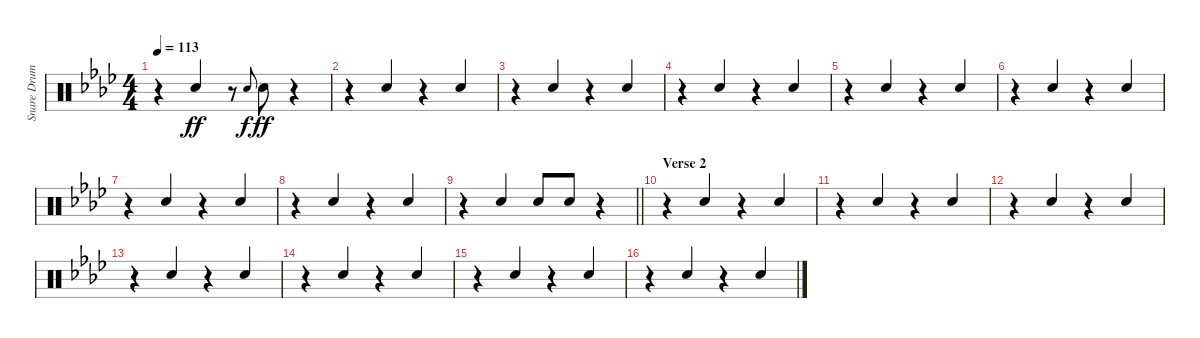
\track ("Snare Drum" "Snare Drum") {instrument percussion}
\staff {score}
\articulation defaults
\ts (4 4)
\tempo 113
\clef neutral
\ks fminor
r.4{dy ff} "Electric Snare (hit)".4{beam Up} r.8 "Electric Snare (hit)".8{gr onbeat dy f} "Electric Snare (hit)".8{dy ff} r.4 |
r.4 "Electric Snare (hit)".4{beam Up} r.4 "Electric Snare (hit)".4{beam Up} |
r.4 "Electric Snare (hit)".4{beam Up} r.4 "Electric Snare (hit)".4{beam Up} |
r.4 "Electric Snare (hit)".4{beam Up} r.4 "Electric Snare (hit)".4{beam Up} |
r.4 "Electric Snare (hit)".4{beam Up} r.4 "Electric Snare (hit)".4{beam Up} |
r.4 "Electric Snare (hit)".4{beam Up} r.4 "Electric Snare (hit)".4{beam Up} |
r.4 "Electric Snare (hit)".4{beam Up} r.4 "Electric Snare (hit)".4{beam Up} |
r.4 "Electric Snare (hit)".4{beam Up} r.4 "Electric Snare (hit)".4{beam Up} |
\barLineRight lightlight
r.4 "Electric Snare (hit)".4{beam Up} "Electric Snare (hit)".8{beam Up} "Electric Snare (hit)".8{beam Up} r.4 |
\section ("" "Verse 2")
r.4 "Electric Snare (hit)".4{beam Up} r.4 "Electric Snare (hit)".4{beam Up} |
r.4 "Electric Snare (hit)".4{beam Up} r.4 "Electric Snare (hit)".4{beam Up} |
r.4 "Electric Snare (hit)".4{beam Up} r.4 "Electric Snare (hit)".4{beam Up} |
r.4 "Electric Snare (hit)".4{beam Up} r.4 "Electric Snare (hit)".4{beam Up} |
r.4 "Electric Snare (hit)".4{beam Up} r.4 "Electric Snare (hit)".4{beam Up} |
r.4 "Electric Snare (hit)".4{beam Up} r.4 "Electric Snare (hit)".4{beam Up} |
r.4 "Electric Snare (hit)".4{beam Up} r.4 "Electric Snare (hit)".4{beam Up}
